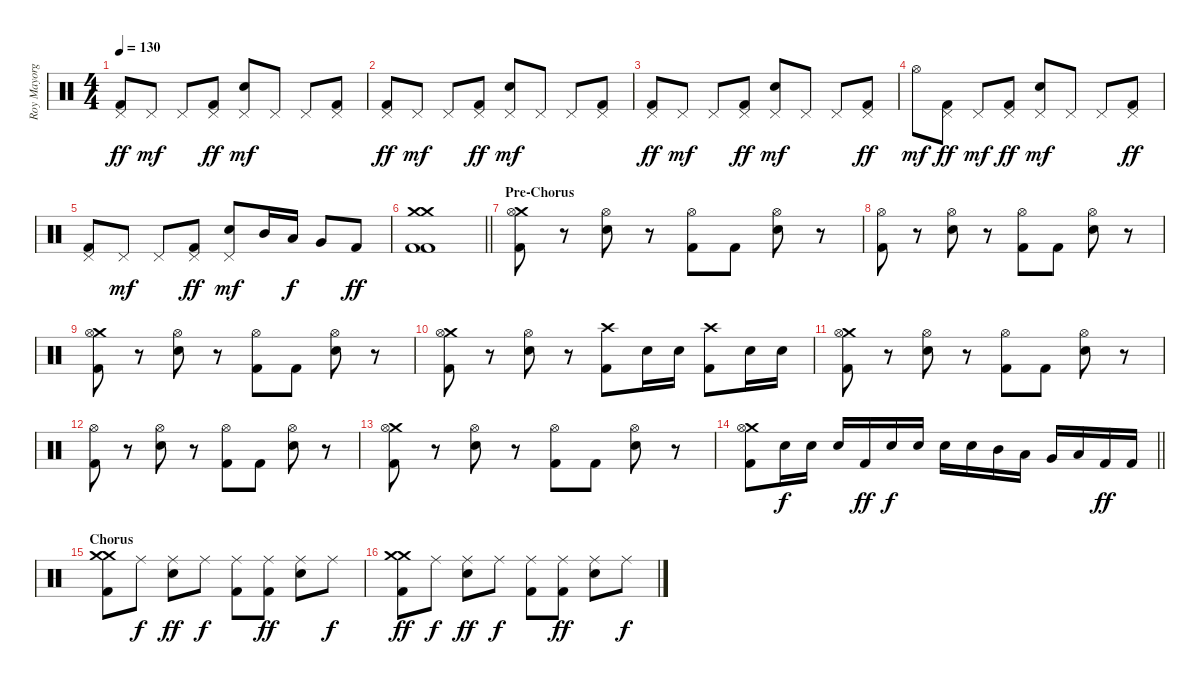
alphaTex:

\track ("Roy Mayorga (Drums)" "Roy Mayorg") {instrument percussion}
\staff {score}
\articulation defaults
\ts (4 4)
\tempo 130
\clef neutral
\ks c
("Pedal Hi-Hat (hit)" "Kick (hit) 2").8{dy ff} "Pedal Hi-Hat (hit)".8{dy mf} "Pedal Hi-Hat (hit)".8 ("Pedal Hi-Hat (hit)" "Kick (hit) 2").8{dy ff} ("Pedal Hi-Hat (hit)" "Electric Snare (hit)").8{dy mf} "Pedal Hi-Hat (hit)".8 "Pedal Hi-Hat (hit)".8 ("Pedal Hi-Hat (hit)" "Kick (hit) 2").8 |
("Pedal Hi-Hat (hit)" "Kick (hit) 2").8{dy ff} "Pedal Hi-Hat (hit)".8{dy mf} "Pedal Hi-Hat (hit)".8 ("Pedal Hi-Hat (hit)" "Kick (hit) 2").8{dy ff} ("Pedal Hi-Hat (hit)" "Electric Snare (hit)").8{dy mf} "Pedal Hi-Hat (hit)".8 "Pedal Hi-Hat (hit)".8 ("Pedal Hi-Hat (hit)" "Kick (hit) 2").8 |
("Pedal Hi-Hat (hit)" "Kick (hit) 2").8{dy ff} "Pedal Hi-Hat (hit)".8{dy mf} "Pedal Hi-Hat (hit)".8 ("Pedal Hi-Hat (hit)" "Kick (hit) 2").8{dy ff} ("Pedal Hi-Hat (hit)" "Electric Snare (hit)").8{dy mf} "Pedal Hi-Hat (hit)".8 "Pedal Hi-Hat (hit)".8 ("Pedal Hi-Hat (hit)" "Kick (hit) 2").8{dy ff} |
"Hi-Hat (open)".8{dy mf} ("Pedal Hi-Hat (hit)" "Kick (hit) 2").8{dy ff} "Pedal Hi-Hat (hit)".8{dy mf} ("Pedal Hi-Hat (hit)" "Kick (hit) 2").8{dy ff} ("Pedal Hi-Hat (hit)" "Electric Snare (hit)").8{dy mf} "Pedal Hi-Hat (hit)".8 "Pedal Hi-Hat (hit)".8 ("Pedal Hi-Hat (hit)" "Kick (hit) 2").8{dy ff} |
("Pedal Hi-Hat (hit)" "Kick (hit) 2").8 "Pedal Hi-Hat (hit)".8{dy mf} "Pedal Hi-Hat (hit)".8 ("Pedal Hi-Hat (hit)" "Kick (hit) 2").8{dy ff} ("Pedal Hi-Hat (hit)" "Electric Snare (hit)").8{dy mf} "Mid Tom (hit)".16 "Low Tom (hit)".16{dy f} "Very Low Tom (hit)".8 "Kick (hit) 2".8{dy ff} |
\barLineRight lightlight
("Crash medium (hit)" "Crash medium (hit)" "Kick (hit) 2" "Kick (hit) 2").1 |
\section ("" "Pre-Chorus")
("Crash medium (hit)" "Hi-Hat (open)" "Kick (hit) 2").8 r.8 ("Hi-Hat (open)" "Electric Snare (hit)").8 r.8 ("Hi-Hat (open)" "Kick (hit) 2").8 "Kick (hit) 2".8 ("Hi-Hat (open)" "Electric Snare (hit)").8 r.8 |
("Hi-Hat (open)" "Kick (hit) 2").8 r.8 ("Hi-Hat (open)" "Electric Snare (hit)").8 r.8 ("Hi-Hat (open)" "Kick (hit) 2").8 "Kick (hit) 2".8 ("Hi-Hat (open)" "Electric Snare (hit)").8 r.8 |
("Crash medium (hit)" "Hi-Hat (open)" "Kick (hit) 2").8 r.8 ("Hi-Hat (open)" "Electric Snare (hit)").8 r.8 ("Hi-Hat (open)" "Kick (hit) 2").8 "Kick (hit) 2".8 ("Hi-Hat (open)" "Electric Snare (hit)").8 r.8 |
("Crash medium (hit)" "Hi-Hat (open)" "Kick (hit) 2").8 r.8 ("Hi-Hat (open)" "Electric Snare (hit)").8 r.8 ("Crash high (hit)" "Kick (hit) 2").8 "Electric Snare (hit)".16 "Electric Snare (hit)".16 ("Crash high (hit)" "Kick (hit) 2").8 "Electric Snare (hit)".16 "Electric Snare (hit)".16 |
("Crash medium (hit)" "Hi-Hat (open)" "Kick (hit) 2").8 r.8 ("Hi-Hat (open)" "Electric Snare (hit)").8 r.8 ("Hi-Hat (open)" "Kick (hit) 2").8 "Kick (hit) 2".8 ("Hi-Hat (open)" "Electric Snare (hit)").8 r.8 |
("Hi-Hat (open)" "Kick (hit) 2").8 r.8 ("Hi-Hat (open)" "Electric Snare (hit)").8 r.8 ("Hi-Hat (open)" "Kick (hit) 2").8 "Kick (hit) 2".8 ("Hi-Hat (open)" "Electric Snare (hit)").8 r.8 |
("Crash medium (hit)" "Hi-Hat (open)" "Kick (hit) 2").8 r.8 ("Hi-Hat (open)" "Electric Snare (hit)").8 r.8 ("Hi-Hat (open)" "Kick (hit) 2").8 "Kick (hit) 2".8 ("Hi-Hat (open)" "Electric Snare (hit)").8 r.8 |
\barLineRight lightlight
("Crash medium (hit)" "Hi-Hat (open)" "Kick (hit) 2").8 "Electric Snare (hit)".16{dy f} "Electric Snare (hit)".16 "Electric Snare (hit)".16 "Kick (hit) 2".16{dy ff} "Electric Snare (hit)".16{dy f} "Electric Snare (hit)".16 "Electric Snare (hit)".16 "Electric Snare (hit)".16 "Mid Tom (hit)".16 "Low Tom (hit)".16 "Very Low Tom (hit)".16 "Low Floor Tom (hit)".16 "Kick (hit) 2".16{dy ff} "Kick (hit) 2".16 |
\section ("" "Chorus")
("Crash medium (hit)" "Crash medium (hit)" "Kick (hit) 2").8 "Ride (middle)".8{dy f} ("Ride (middle)" "Electric Snare (hit)").8{dy ff} "Ride (middle)".8{dy f} ("Ride (middle)" "Kick (hit) 2").8 ("Ride (middle)" "Kick (hit) 2").8{dy ff} ("Ride (middle)" "Electric Snare (hit)").8 "Ride (middle)".8{dy f} |
("Crash medium (hit)" "Crash medium (hit)" "Kick (hit) 2").8{dy ff} "Ride (middle)".8{dy f} ("Ride (middle)" "Electric Snare (hit)").8{dy ff} "Ride (middle)".8{dy f} ("Ride (middle)" "Kick (hit) 2").8 ("Ride (middle)" "Kick (hit) 2").8{dy ff} ("Ride (middle)" "Electric Snare (hit)").8 "Ride (middle)".8{dy f}
